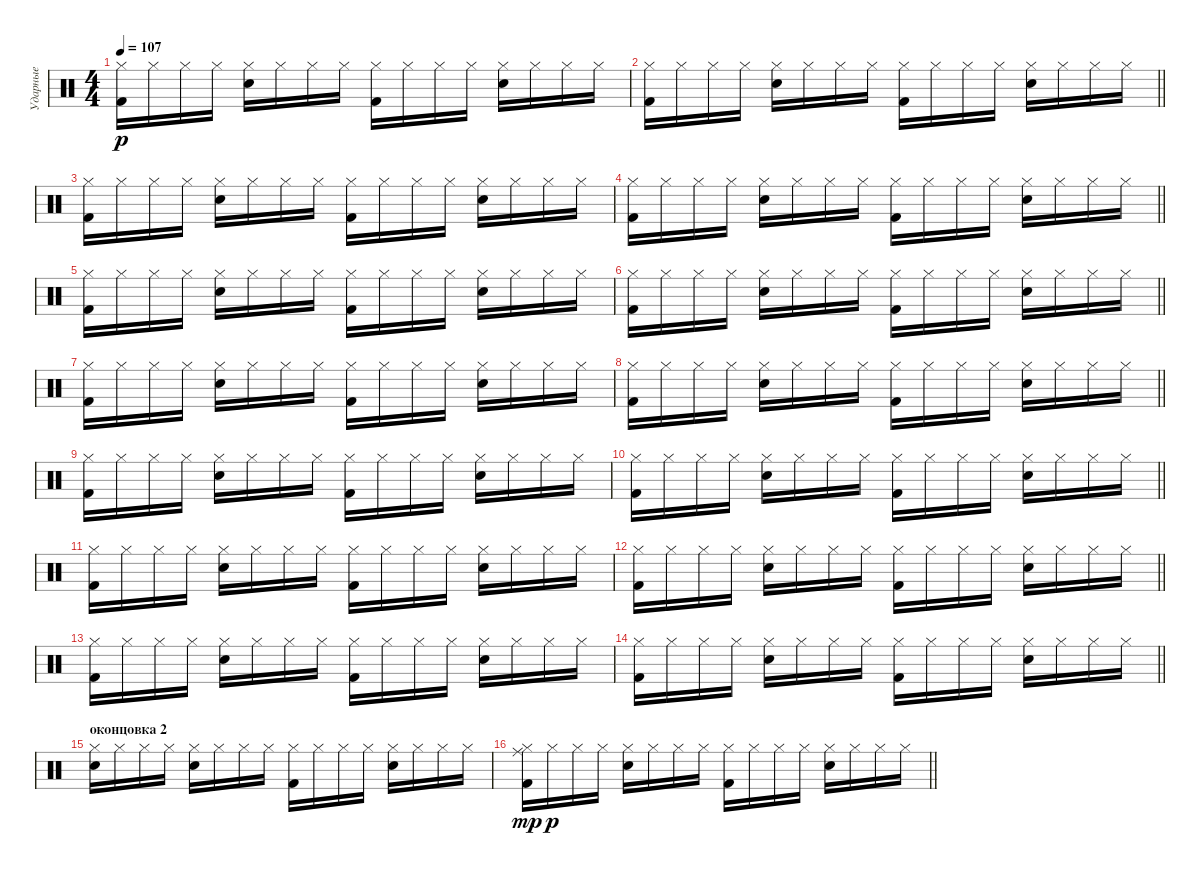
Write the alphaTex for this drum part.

\track ("Ударные" "Ударные") {solo instrument percussion}
\staff {score}
\articulation defaults
\ts (4 4)
\tempo 107
\clef neutral
\ks c
("Kick (hit) 2" "Hi-Hat (closed)").16{dy p} "Hi-Hat (closed)".16 "Hi-Hat (closed)".16 "Hi-Hat (closed)".16 ("Snare (hit) 2" "Hi-Hat (closed)").16 "Hi-Hat (closed)".16 "Hi-Hat (closed)".16 "Hi-Hat (closed)".16 ("Kick (hit) 2" "Hi-Hat (closed)").16 "Hi-Hat (closed)".16 "Hi-Hat (closed)".16 "Hi-Hat (closed)".16 ("Snare (hit) 2" "Hi-Hat (closed)").16 "Hi-Hat (closed)".16 "Hi-Hat (closed)".16 "Hi-Hat (closed)".16 |
\barLineRight lightlight
("Kick (hit) 2" "Hi-Hat (closed)").16 "Hi-Hat (closed)".16 "Hi-Hat (closed)".16 "Hi-Hat (closed)".16 ("Snare (hit) 2" "Hi-Hat (closed)").16 "Hi-Hat (closed)".16 "Hi-Hat (closed)".16 "Hi-Hat (closed)".16 ("Kick (hit) 2" "Hi-Hat (closed)").16 "Hi-Hat (closed)".16 "Hi-Hat (closed)".16 "Hi-Hat (closed)".16 ("Snare (hit) 2" "Hi-Hat (closed)").16 "Hi-Hat (closed)".16 "Hi-Hat (closed)".16 "Hi-Hat (closed)".16 |
("Kick (hit) 2" "Hi-Hat (closed)").16 "Hi-Hat (closed)".16 "Hi-Hat (closed)".16 "Hi-Hat (closed)".16 ("Snare (hit) 2" "Hi-Hat (closed)").16 "Hi-Hat (closed)".16 "Hi-Hat (closed)".16 "Hi-Hat (closed)".16 ("Kick (hit) 2" "Hi-Hat (closed)").16 "Hi-Hat (closed)".16 "Hi-Hat (closed)".16 "Hi-Hat (closed)".16 ("Snare (hit) 2" "Hi-Hat (closed)").16 "Hi-Hat (closed)".16 "Hi-Hat (closed)".16 "Hi-Hat (closed)".16 |
\barLineRight lightlight
("Kick (hit) 2" "Hi-Hat (closed)").16 "Hi-Hat (closed)".16 "Hi-Hat (closed)".16 "Hi-Hat (closed)".16 ("Snare (hit) 2" "Hi-Hat (closed)").16 "Hi-Hat (closed)".16 "Hi-Hat (closed)".16 "Hi-Hat (closed)".16 ("Kick (hit) 2" "Hi-Hat (closed)").16 "Hi-Hat (closed)".16 "Hi-Hat (closed)".16 "Hi-Hat (closed)".16 ("Snare (hit) 2" "Hi-Hat (closed)").16 "Hi-Hat (closed)".16 "Hi-Hat (closed)".16 "Hi-Hat (closed)".16 |
("Kick (hit) 2" "Hi-Hat (closed)").16 "Hi-Hat (closed)".16 "Hi-Hat (closed)".16 "Hi-Hat (closed)".16 ("Snare (hit) 2" "Hi-Hat (closed)").16 "Hi-Hat (closed)".16 "Hi-Hat (closed)".16 "Hi-Hat (closed)".16 ("Kick (hit) 2" "Hi-Hat (closed)").16 "Hi-Hat (closed)".16 "Hi-Hat (closed)".16 "Hi-Hat (closed)".16 ("Snare (hit) 2" "Hi-Hat (closed)").16 "Hi-Hat (closed)".16 "Hi-Hat (closed)".16 "Hi-Hat (closed)".16 |
\barLineRight lightlight
("Kick (hit) 2" "Hi-Hat (closed)").16 "Hi-Hat (closed)".16 "Hi-Hat (closed)".16 "Hi-Hat (closed)".16 ("Snare (hit) 2" "Hi-Hat (closed)").16 "Hi-Hat (closed)".16 "Hi-Hat (closed)".16 "Hi-Hat (closed)".16 ("Kick (hit) 2" "Hi-Hat (closed)").16 "Hi-Hat (closed)".16 "Hi-Hat (closed)".16 "Hi-Hat (closed)".16 ("Snare (hit) 2" "Hi-Hat (closed)").16 "Hi-Hat (closed)".16 "Hi-Hat (closed)".16 "Hi-Hat (closed)".16 |
("Kick (hit) 2" "Hi-Hat (closed)").16 "Hi-Hat (closed)".16 "Hi-Hat (closed)".16 "Hi-Hat (closed)".16 ("Snare (hit) 2" "Hi-Hat (closed)").16 "Hi-Hat (closed)".16 "Hi-Hat (closed)".16 "Hi-Hat (closed)".16 ("Kick (hit) 2" "Hi-Hat (closed)").16 "Hi-Hat (closed)".16 "Hi-Hat (closed)".16 "Hi-Hat (closed)".16 ("Snare (hit) 2" "Hi-Hat (closed)").16 "Hi-Hat (closed)".16 "Hi-Hat (closed)".16 "Hi-Hat (closed)".16 |
\barLineRight lightlight
("Kick (hit) 2" "Hi-Hat (closed)").16 "Hi-Hat (closed)".16 "Hi-Hat (closed)".16 "Hi-Hat (closed)".16 ("Snare (hit) 2" "Hi-Hat (closed)").16 "Hi-Hat (closed)".16 "Hi-Hat (closed)".16 "Hi-Hat (closed)".16 ("Kick (hit) 2" "Hi-Hat (closed)").16 "Hi-Hat (closed)".16 "Hi-Hat (closed)".16 "Hi-Hat (closed)".16 ("Snare (hit) 2" "Hi-Hat (closed)").16 "Hi-Hat (closed)".16 "Hi-Hat (closed)".16 "Hi-Hat (closed)".16 |
("Kick (hit) 2" "Hi-Hat (closed)").16 "Hi-Hat (closed)".16 "Hi-Hat (closed)".16 "Hi-Hat (closed)".16 ("Snare (hit) 2" "Hi-Hat (closed)").16 "Hi-Hat (closed)".16 "Hi-Hat (closed)".16 "Hi-Hat (closed)".16 ("Kick (hit) 2" "Hi-Hat (closed)").16 "Hi-Hat (closed)".16 "Hi-Hat (closed)".16 "Hi-Hat (closed)".16 ("Snare (hit) 2" "Hi-Hat (closed)").16 "Hi-Hat (closed)".16 "Hi-Hat (closed)".16 "Hi-Hat (closed)".16 |
\barLineRight lightlight
("Kick (hit) 2" "Hi-Hat (closed)").16 "Hi-Hat (closed)".16 "Hi-Hat (closed)".16 "Hi-Hat (closed)".16 ("Snare (hit) 2" "Hi-Hat (closed)").16 "Hi-Hat (closed)".16 "Hi-Hat (closed)".16 "Hi-Hat (closed)".16 ("Kick (hit) 2" "Hi-Hat (closed)").16 "Hi-Hat (closed)".16 "Hi-Hat (closed)".16 "Hi-Hat (closed)".16 ("Snare (hit) 2" "Hi-Hat (closed)").16 "Hi-Hat (closed)".16 "Hi-Hat (closed)".16 "Hi-Hat (closed)".16 |
("Kick (hit) 2" "Hi-Hat (closed)").16 "Hi-Hat (closed)".16 "Hi-Hat (closed)".16 "Hi-Hat (closed)".16 ("Snare (hit) 2" "Hi-Hat (closed)").16 "Hi-Hat (closed)".16 "Hi-Hat (closed)".16 "Hi-Hat (closed)".16 ("Kick (hit) 2" "Hi-Hat (closed)").16 "Hi-Hat (closed)".16 "Hi-Hat (closed)".16 "Hi-Hat (closed)".16 ("Snare (hit) 2" "Hi-Hat (closed)").16 "Hi-Hat (closed)".16 "Hi-Hat (closed)".16 "Hi-Hat (closed)".16 |
\barLineRight lightlight
("Kick (hit) 2" "Hi-Hat (closed)").16 "Hi-Hat (closed)".16 "Hi-Hat (closed)".16 "Hi-Hat (closed)".16 ("Snare (hit) 2" "Hi-Hat (closed)").16 "Hi-Hat (closed)".16 "Hi-Hat (closed)".16 "Hi-Hat (closed)".16 ("Kick (hit) 2" "Hi-Hat (closed)").16 "Hi-Hat (closed)".16 "Hi-Hat (closed)".16 "Hi-Hat (closed)".16 ("Snare (hit) 2" "Hi-Hat (closed)").16 "Hi-Hat (closed)".16 "Hi-Hat (closed)".16 "Hi-Hat (closed)".16 |
("Kick (hit) 2" "Hi-Hat (closed)").16 "Hi-Hat (closed)".16 "Hi-Hat (closed)".16 "Hi-Hat (closed)".16 ("Snare (hit) 2" "Hi-Hat (closed)").16 "Hi-Hat (closed)".16 "Hi-Hat (closed)".16 "Hi-Hat (closed)".16 ("Kick (hit) 2" "Hi-Hat (closed)").16 "Hi-Hat (closed)".16 "Hi-Hat (closed)".16 "Hi-Hat (closed)".16 ("Snare (hit) 2" "Hi-Hat (closed)").16 "Hi-Hat (closed)".16 "Hi-Hat (closed)".16 "Hi-Hat (closed)".16 |
\barLineRight lightlight
("Kick (hit) 2" "Hi-Hat (closed)").16 "Hi-Hat (closed)".16 "Hi-Hat (closed)".16 "Hi-Hat (closed)".16 ("Snare (hit) 2" "Hi-Hat (closed)").16 "Hi-Hat (closed)".16 "Hi-Hat (closed)".16 "Hi-Hat (closed)".16 ("Kick (hit) 2" "Hi-Hat (closed)").16 "Hi-Hat (closed)".16 "Hi-Hat (closed)".16 "Hi-Hat (closed)".16 ("Snare (hit) 2" "Hi-Hat (closed)").16 "Hi-Hat (closed)".16 "Hi-Hat (closed)".16 "Hi-Hat (closed)".16 |
\section ("" "оконцовка 2")
("Snare (hit) 2" "Hi-Hat (closed)").16 "Hi-Hat (closed)".16 "Hi-Hat (closed)".16 "Hi-Hat (closed)".16 ("Snare (hit) 2" "Hi-Hat (closed)").16 "Hi-Hat (closed)".16 "Hi-Hat (closed)".16 "Hi-Hat (closed)".16 ("Kick (hit) 2" "Hi-Hat (closed)").16 "Hi-Hat (closed)".16 "Hi-Hat (closed)".16 "Hi-Hat (closed)".16 ("Snare (hit) 2" "Hi-Hat (closed)").16 "Hi-Hat (closed)".16 "Hi-Hat (closed)".16 "Hi-Hat (closed)".16 |
\barLineRight lightlight
("Kick (hit) 2" "Hi-Hat (closed)" "Ride (middle)").16{dy mp} "Hi-Hat (closed)".16{dy p} "Hi-Hat (closed)".16 "Hi-Hat (closed)".16 ("Snare (hit) 2" "Hi-Hat (closed)").16 "Hi-Hat (closed)".16 "Hi-Hat (closed)".16 "Hi-Hat (closed)".16 ("Kick (hit) 2" "Hi-Hat (closed)").16 "Hi-Hat (closed)".16 "Hi-Hat (closed)".16 "Hi-Hat (closed)".16 ("Snare (hit) 2" "Hi-Hat (closed)").16 "Hi-Hat (closed)".16 "Hi-Hat (closed)".16 "Hi-Hat (closed)".16
